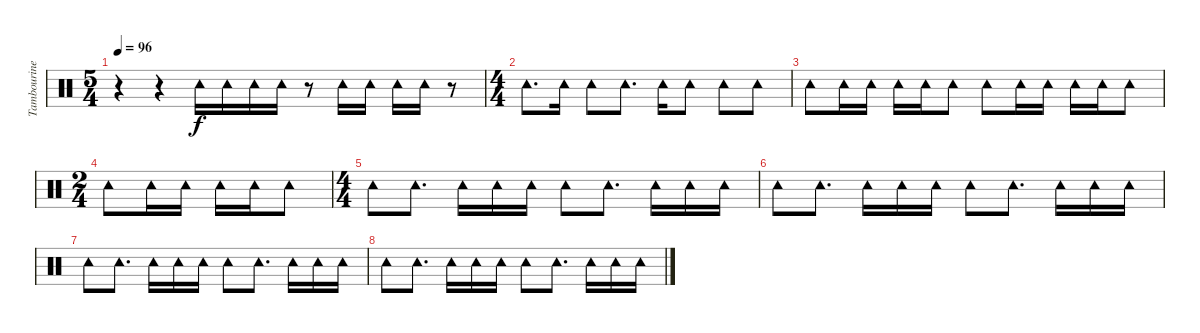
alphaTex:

\track ("Tambourine" "Tambourine") {instrument percussion}
\staff {score}
\articulation defaults
\ts (5 4)
\tempo 96
\clef neutral
\ks c
r.4{dy f} r.4 "Tambourine (hit)".16 "Tambourine (hit)".16 "Tambourine (hit)".16 "Tambourine (hit)".16 r.8 "Tambourine (hit)".16 "Tambourine (hit)".16 "Tambourine (hit)".16 "Tambourine (hit)".16 r.8 |
\ts (4 4)
"Tambourine (hit)".8{d} "Tambourine (hit)".16 "Tambourine (hit)".8 "Tambourine (hit)".8{d} "Tambourine (hit)".16 "Tambourine (hit)".8 "Tambourine (hit)".8 "Tambourine (hit)".8 |
"Tambourine (hit)".8 "Tambourine (hit)".16 "Tambourine (hit)".16 "Tambourine (hit)".16 "Tambourine (hit)".16 "Tambourine (hit)".8 "Tambourine (hit)".8 "Tambourine (hit)".16 "Tambourine (hit)".16 "Tambourine (hit)".16 "Tambourine (hit)".16 "Tambourine (hit)".8 |
\ts (2 4)
"Tambourine (hit)".8 "Tambourine (hit)".16 "Tambourine (hit)".16 "Tambourine (hit)".16 "Tambourine (hit)".16 "Tambourine (hit)".8 |
\ts (4 4)
"Tambourine (hit)".8 "Tambourine (hit)".8{d} "Tambourine (hit)".16 "Tambourine (hit)".16 "Tambourine (hit)".16 "Tambourine (hit)".8 "Tambourine (hit)".8{d} "Tambourine (hit)".16 "Tambourine (hit)".16 "Tambourine (hit)".16 |
"Tambourine (hit)".8 "Tambourine (hit)".8{d} "Tambourine (hit)".16 "Tambourine (hit)".16 "Tambourine (hit)".16 "Tambourine (hit)".8 "Tambourine (hit)".8{d} "Tambourine (hit)".16 "Tambourine (hit)".16 "Tambourine (hit)".16 |
"Tambourine (hit)".8 "Tambourine (hit)".8{d} "Tambourine (hit)".16 "Tambourine (hit)".16 "Tambourine (hit)".16 "Tambourine (hit)".8 "Tambourine (hit)".8{d} "Tambourine (hit)".16 "Tambourine (hit)".16 "Tambourine (hit)".16 |
"Tambourine (hit)".8 "Tambourine (hit)".8{d} "Tambourine (hit)".16 "Tambourine (hit)".16 "Tambourine (hit)".16 "Tambourine (hit)".8 "Tambourine (hit)".8{d} "Tambourine (hit)".16 "Tambourine (hit)".16 "Tambourine (hit)".16
